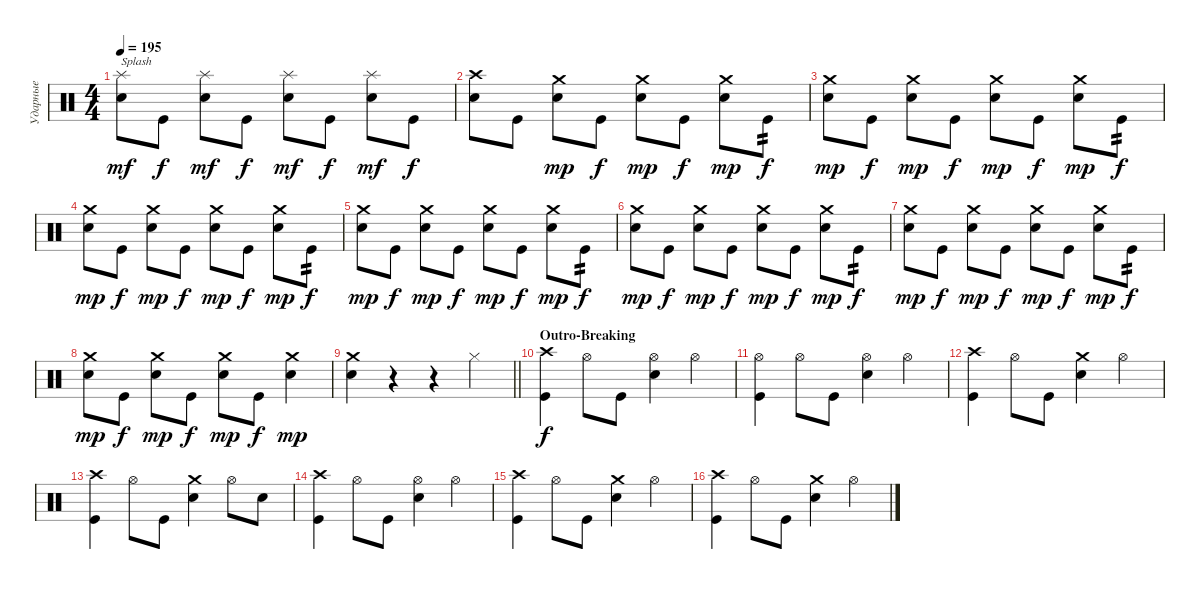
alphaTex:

\track ("Ударные" "Ударные") {instrument percussion}
\staff {score}
\articulation defaults
\ts (4 4)
\tempo 195
\clef neutral
\ks c
("Snare (hit) 2" "Splash (hit)").8{txt "Splash" dy mf} "Kick (hit)".8{dy f} ("Snare (hit) 2" "Splash (hit)").8{dy mf} "Kick (hit)".8{dy f} ("Snare (hit) 2" "Splash (hit)").8{dy mf} "Kick (hit)".8{dy f} ("Snare (hit) 2" "Splash (hit)").8{dy mf} "Kick (hit)".8{dy f} |
("Crash high (hit)" "Snare (hit) 2").8 "Kick (hit)".8 ("Snare (hit) 2" "Crash medium (hit)").8{dy mp} "Kick (hit)".8{dy f} ("Snare (hit) 2" "Crash medium (hit)").8{dy mp} "Kick (hit)".8{dy f} ("Snare (hit) 2" "Crash medium (hit)").8{dy mp} "Kick (hit)".8{tp 2 dy f} |
("Crash medium (hit)" "Snare (hit) 2").8{dy mp} "Kick (hit)".8{dy f} ("Snare (hit) 2" "Crash medium (hit)").8{dy mp} "Kick (hit)".8{dy f} ("Snare (hit) 2" "Crash medium (hit)").8{dy mp} "Kick (hit)".8{dy f} ("Snare (hit) 2" "Crash medium (hit)").8{dy mp} "Kick (hit)".8{tp 2 dy f} |
("Crash medium (hit)" "Snare (hit) 2").8{dy mp} "Kick (hit)".8{dy f} ("Snare (hit) 2" "Crash medium (hit)").8{dy mp} "Kick (hit)".8{dy f} ("Snare (hit) 2" "Crash medium (hit)").8{dy mp} "Kick (hit)".8{dy f} ("Snare (hit) 2" "Crash medium (hit)").8{dy mp} "Kick (hit)".8{tp 2 dy f} |
("Crash medium (hit)" "Snare (hit) 2").8{dy mp} "Kick (hit)".8{dy f} ("Snare (hit) 2" "Crash medium (hit)").8{dy mp} "Kick (hit)".8{dy f} ("Snare (hit) 2" "Crash medium (hit)").8{dy mp} "Kick (hit)".8{dy f} ("Snare (hit) 2" "Crash medium (hit)").8{dy mp} "Kick (hit)".8{tp 2 dy f} |
("Crash medium (hit)" "Snare (hit) 2").8{dy mp} "Kick (hit)".8{dy f} ("Snare (hit) 2" "Crash medium (hit)").8{dy mp} "Kick (hit)".8{dy f} ("Snare (hit) 2" "Crash medium (hit)").8{dy mp} "Kick (hit)".8{dy f} ("Snare (hit) 2" "Crash medium (hit)").8{dy mp} "Kick (hit)".8{tp 2 dy f} |
("Crash medium (hit)" "Snare (hit) 2").8{dy mp} "Kick (hit)".8{dy f} ("Snare (hit) 2" "Crash medium (hit)").8{dy mp} "Kick (hit)".8{dy f} ("Snare (hit) 2" "Crash medium (hit)").8{dy mp} "Kick (hit)".8{dy f} ("Snare (hit) 2" "Crash medium (hit)").8{dy mp} "Kick (hit)".8{tp 2 dy f} |
("Crash medium (hit)" "Snare (hit) 2").8{dy mp} "Kick (hit)".8{dy f} ("Snare (hit) 2" "Crash medium (hit)").8{dy mp} "Kick (hit)".8{dy f} ("Snare (hit) 2" "Crash medium (hit)").8{dy mp} "Kick (hit)".8{dy f} ("Snare (hit) 2" "Crash medium (hit)").4{dy mp} |
\barLineRight lightlight
("Snare (hit) 2" "Crash medium (hit)").4 r.4 r.4 "Hi-Hat (closed)".4 |
\section ("" "Outro-Breaking")
("Kick (hit)" "Crash high (hit)").4{dy f} "Hi-Hat (open)".8 "Kick (hit)".8 ("Hi-Hat (open)" "Snare (hit) 2").4 "Hi-Hat (open)".4 |
("Kick (hit)" "Hi-Hat (open)").4 "Hi-Hat (open)".8 "Kick (hit)".8 ("Snare (hit) 2" "Hi-Hat (open)").4 "Hi-Hat (open)".4 |
("Kick (hit)" "Crash high (hit)").4 "Hi-Hat (open)".8 "Kick (hit)".8 ("Snare (hit) 2" "Crash medium (hit)").4 "Hi-Hat (open)".4 |
("Kick (hit)" "Crash high (hit)").4 "Hi-Hat (open)".8 "Kick (hit)".8 ("Snare (hit) 2" "Crash medium (hit)").4 "Hi-Hat (open)".8 "Snare (hit) 2".8 |
("Kick (hit)" "Crash high (hit)").4 "Hi-Hat (open)".8 "Kick (hit)".8 ("Snare (hit) 2" "Hi-Hat (open)").4 "Hi-Hat (open)".4 |
("Kick (hit)" "Crash high (hit)").4 "Hi-Hat (open)".8 "Kick (hit)".8 ("Snare (hit) 2" "Crash medium (hit)").4 "Hi-Hat (open)".4 |
("Kick (hit)" "Crash high (hit)").4 "Hi-Hat (open)".8 "Kick (hit)".8 ("Snare (hit) 2" "Crash medium (hit)").4 "Hi-Hat (open)".4
